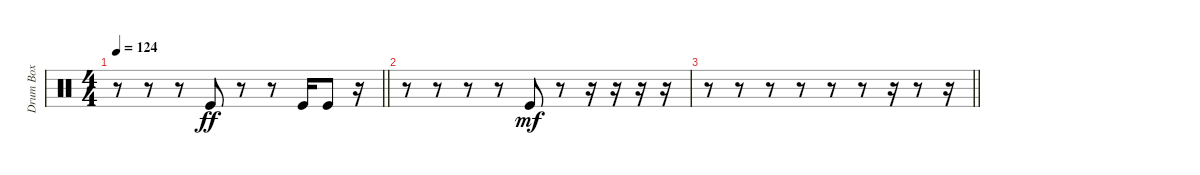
\track ("Drum Box" "Drum Box") {instrument percussion}
\staff {score}
\articulation defaults
\ts (4 4)
\tempo 124
\clef neutral
\barLineRight lightlight
\ks c
r.8{dy ff} r.8 r.8 "Kick (hit)".8 r.8 r.8 "Kick (hit)".16 "Kick (hit)".8 r.16 |
r.8 r.8 r.8 r.8 "Kick (hit)".8{dy mf} r.8 r.16 r.16 r.16 r.16 |
\barLineRight lightlight
r.8 r.8 r.8 r.8 r.8 r.8 r.16 r.8 r.16
